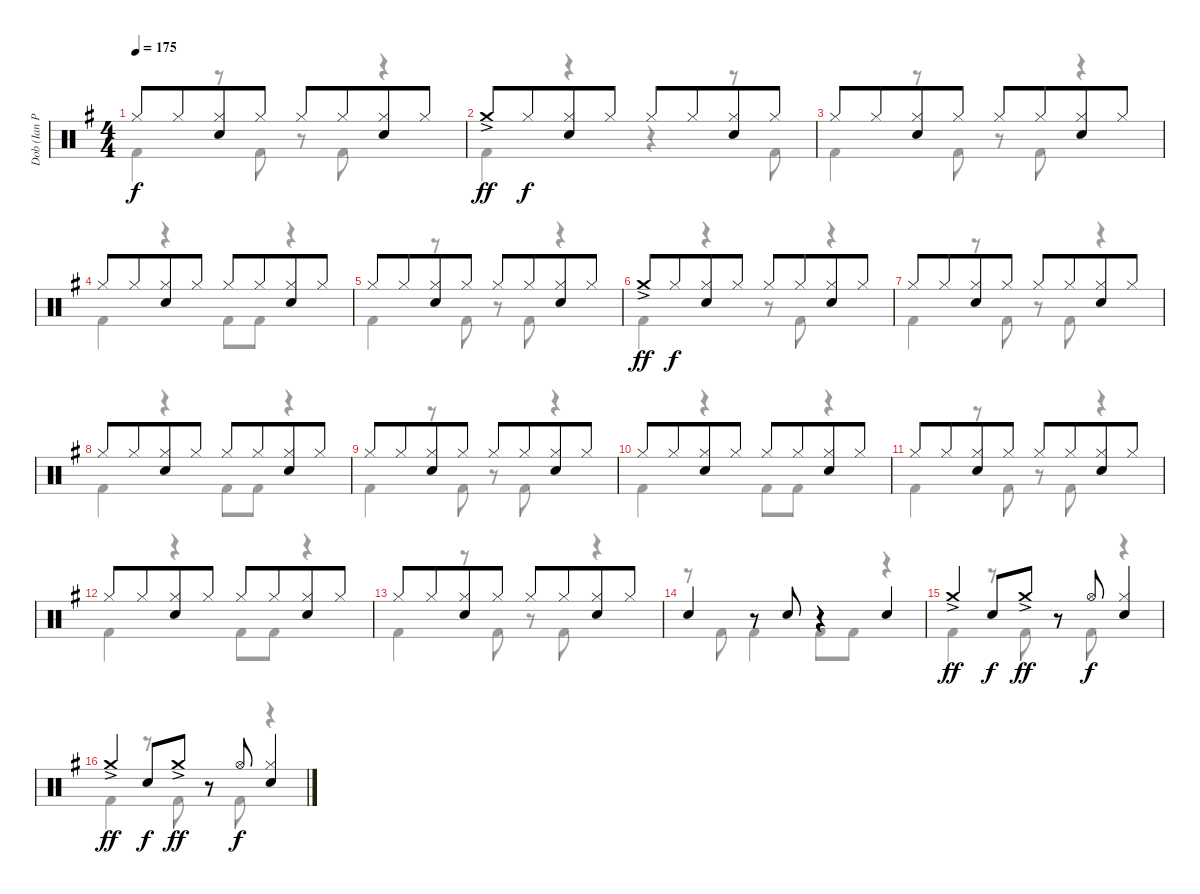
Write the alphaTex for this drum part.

\track ("Dob (Ian Paice)" "Dob (Ian P") {instrument percussion}
\staff {score}
\articulation defaults
\voice
\ts (4 4)
\tempo 175
\clef neutral
\ks g "Hi-Hat (closed)".8{dy f} "Hi-Hat (closed)".8{beam merge}
("Hi-Hat (closed)" "Electric Snare (hit)").8 "Hi-Hat (closed)".8 "Hi-Hat (closed)".8 "Hi-Hat (closed)".8{beam merge} ("Hi-Hat (closed)" "Electric Snare (hit)").8 "Hi-Hat (closed)".8 |
"Crash medium (hit)"{ac}.8{dy ff} "Hi-Hat (closed)".8{dy f beam merge} ("Hi-Hat (closed)" "Electric Snare (hit)").8 "Hi-Hat (closed)".8 "Hi-Hat (closed)".8 "Hi-Hat (closed)".8{beam merge} ("Hi-Hat (closed)" "Electric Snare (hit)").8 "Hi-Hat (closed)".8 |
"Hi-Hat (closed)".8 "Hi-Hat (closed)".8{beam merge} ("Hi-Hat (closed)" "Electric Snare (hit)").8 "Hi-Hat (closed)".8 "Hi-Hat (closed)".8 "Hi-Hat (closed)".8{beam merge} ("Hi-Hat (closed)" "Electric Snare (hit)").8 "Hi-Hat (closed)".8 |
"Hi-Hat (closed)".8 "Hi-Hat (closed)".8{beam merge} ("Hi-Hat (closed)" "Electric Snare (hit)").8 "Hi-Hat (closed)".8 "Hi-Hat (closed)".8 "Hi-Hat (closed)".8{beam merge} ("Hi-Hat (closed)" "Electric Snare (hit)").8 "Hi-Hat (closed)".8 |
"Hi-Hat (closed)".8 "Hi-Hat (closed)".8{beam merge} ("Hi-Hat (closed)" "Electric Snare (hit)").8 "Hi-Hat (closed)".8 "Hi-Hat (closed)".8 "Hi-Hat (closed)".8{beam merge} ("Hi-Hat (closed)" "Electric Snare (hit)").8 "Hi-Hat (closed)".8 |
"Crash medium (hit)"{ac}.8{dy ff} "Hi-Hat (closed)".8{dy f beam merge} ("Hi-Hat (closed)" "Electric Snare (hit)").8 "Hi-Hat (closed)".8 "Hi-Hat (closed)".8 "Hi-Hat (closed)".8{beam merge} ("Hi-Hat (closed)" "Electric Snare (hit)").8 "Hi-Hat (closed)".8 |
"Hi-Hat (closed)".8 "Hi-Hat (closed)".8{beam merge} ("Hi-Hat (closed)" "Electric Snare (hit)").8 "Hi-Hat (closed)".8 "Hi-Hat (closed)".8 "Hi-Hat (closed)".8{beam merge} ("Hi-Hat (closed)" "Electric Snare (hit)").8 "Hi-Hat (closed)".8 |
"Hi-Hat (closed)".8 "Hi-Hat (closed)".8{beam merge} ("Hi-Hat (closed)" "Electric Snare (hit)").8 "Hi-Hat (closed)".8 "Hi-Hat (closed)".8 "Hi-Hat (closed)".8{beam merge} ("Hi-Hat (closed)" "Electric Snare (hit)").8 "Hi-Hat (closed)".8 |
"Hi-Hat (closed)".8 "Hi-Hat (closed)".8{beam merge} ("Hi-Hat (closed)" "Electric Snare (hit)").8 "Hi-Hat (closed)".8 "Hi-Hat (closed)".8 "Hi-Hat (closed)".8{beam merge} ("Hi-Hat (closed)" "Electric Snare (hit)").8 "Hi-Hat (closed)".8 |
"Hi-Hat (closed)".8 "Hi-Hat (closed)".8{beam merge} ("Hi-Hat (closed)" "Electric Snare (hit)").8 "Hi-Hat (closed)".8 "Hi-Hat (closed)".8 "Hi-Hat (closed)".8{beam merge} ("Hi-Hat (closed)" "Electric Snare (hit)").8 "Hi-Hat (closed)".8 |
"Hi-Hat (closed)".8 "Hi-Hat (closed)".8{beam merge} ("Hi-Hat (closed)" "Electric Snare (hit)").8 "Hi-Hat (closed)".8 "Hi-Hat (closed)".8 "Hi-Hat (closed)".8{beam merge} ("Hi-Hat (closed)" "Electric Snare (hit)").8 "Hi-Hat (closed)".8 |
"Hi-Hat (closed)".8 "Hi-Hat (closed)".8{beam merge} ("Hi-Hat (closed)" "Electric Snare (hit)").8 "Hi-Hat (closed)".8 "Hi-Hat (closed)".8 "Hi-Hat (closed)".8{beam merge} ("Hi-Hat (closed)" "Electric Snare (hit)").8 "Hi-Hat (closed)".8 |
"Hi-Hat (closed)".8 "Hi-Hat (closed)".8{beam merge} ("Hi-Hat (closed)" "Electric Snare (hit)").8 "Hi-Hat (closed)".8 "Hi-Hat (closed)".8 "Hi-Hat (closed)".8{beam merge} ("Hi-Hat (closed)" "Electric Snare (hit)").8 "Hi-Hat (closed)".8 |
"Electric Snare (hit)".4 r.8 "Electric Snare (hit)".8 r.4 "Electric Snare (hit)".4 |
"Crash medium (hit)"{ac}.4{dy ff} "Electric Snare (hit)".8{dy f} "Crash medium (hit)"{ac}.8{dy ff} r.8 "Hi-Hat (open)".8{dy f} ("Hi-Hat (closed)" "Electric Snare (hit)").4 |
"Crash medium (hit)"{ac}.4{dy ff} "Electric Snare (hit)".8{dy f} "Crash medium (hit)"{ac}.8{dy ff} r.8 "Hi-Hat (open)".8{dy f} ("Hi-Hat (closed)" "Electric Snare (hit)").4
\voice
\clef neutral
\ottava regular
\simile none
\ks g "Kick (hit) 2".4{dy f}
r.8 "Kick (hit) 2".8 r.8 "Kick (hit) 2".8 r.4 |
"Kick (hit) 2".4 r.4 r.4 r.8 "Kick (hit) 2".8 |
"Kick (hit) 2".4 r.8 "Kick (hit) 2".8 r.8 "Kick (hit) 2".8 r.4 |
"Kick (hit) 2".4 r.4 "Kick (hit) 2".8 "Kick (hit) 2".8 r.4 |
"Kick (hit) 2".4 r.8 "Kick (hit) 2".8 r.8 "Kick (hit) 2".8 r.4 |
"Kick (hit) 2".4 r.4 r.8 "Kick (hit) 2".8 r.4 |
"Kick (hit) 2".4 r.8 "Kick (hit) 2".8 r.8 "Kick (hit) 2".8 r.4 |
"Kick (hit) 2".4 r.4 "Kick (hit) 2".8 "Kick (hit) 2".8 r.4 |
"Kick (hit) 2".4 r.8 "Kick (hit) 2".8 r.8 "Kick (hit) 2".8 r.4 |
"Kick (hit) 2".4 r.4 "Kick (hit) 2".8 "Kick (hit) 2".8 r.4 |
"Kick (hit) 2".4 r.8 "Kick (hit) 2".8 r.8 "Kick (hit) 2".8 r.4 |
"Kick (hit) 2".4 r.4 "Kick (hit) 2".8 "Kick (hit) 2".8 r.4 |
"Kick (hit) 2".4 r.8 "Kick (hit) 2".8 r.8 "Kick (hit) 2".8 r.4 |
r.8 "Kick (hit) 2".8 "Kick (hit) 2".4 "Kick (hit) 2".8 "Kick (hit) 2".8 r.4 |
"Kick (hit) 2".4 r.8 "Kick (hit) 2".8 r.8 "Kick (hit) 2".8 r.4 |
"Kick (hit) 2".4 r.8 "Kick (hit) 2".8 r.8 "Kick (hit) 2".8 r.4
